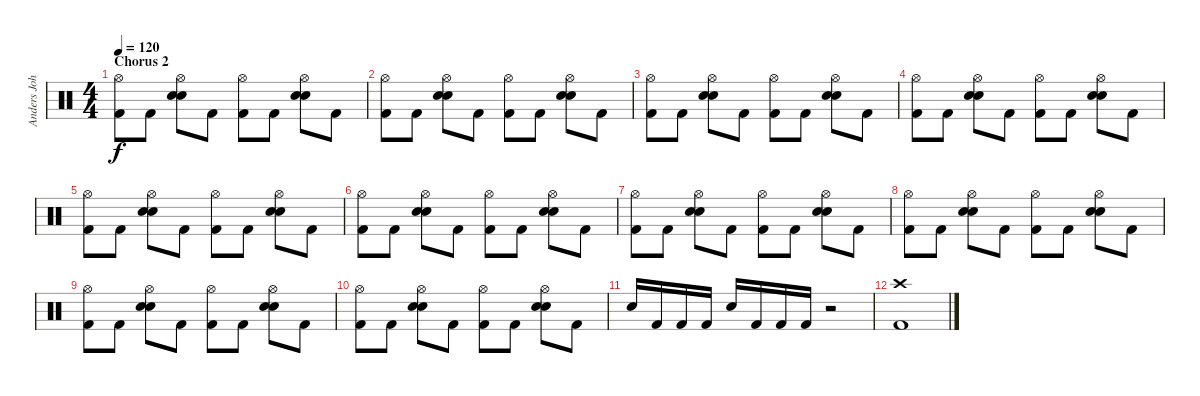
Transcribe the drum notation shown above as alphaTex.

\track ("Anders Johansson" "Anders Joh") {instrument percussion}
\staff {score}
\articulation defaults
\ts (4 4)
\section ("" "Chorus 2")
\tempo 120
\clef neutral
\ks c
("Hi-Hat (open)" "Kick (hit) 2").8{dy f} "Kick (hit) 2".8 ("Hi-Hat (open)" "Electric Snare (hit)" "Snare (hit) 2").8 "Kick (hit) 2".8 ("Hi-Hat (open)" "Kick (hit) 2").8 "Kick (hit) 2".8 ("Hi-Hat (open)" "Electric Snare (hit)" "Snare (hit) 2").8 "Kick (hit) 2".8 |
("Hi-Hat (open)" "Kick (hit) 2").8 "Kick (hit) 2".8 ("Hi-Hat (open)" "Electric Snare (hit)" "Snare (hit) 2").8 "Kick (hit) 2".8 ("Hi-Hat (open)" "Kick (hit) 2").8 "Kick (hit) 2".8 ("Hi-Hat (open)" "Electric Snare (hit)" "Snare (hit) 2").8 "Kick (hit) 2".8 |
("Hi-Hat (open)" "Kick (hit) 2").8 "Kick (hit) 2".8 ("Hi-Hat (open)" "Electric Snare (hit)" "Snare (hit) 2").8 "Kick (hit) 2".8 ("Hi-Hat (open)" "Kick (hit) 2").8 "Kick (hit) 2".8 ("Hi-Hat (open)" "Electric Snare (hit)" "Snare (hit) 2").8 "Kick (hit) 2".8 |
("Hi-Hat (open)" "Kick (hit) 2").8 "Kick (hit) 2".8 ("Hi-Hat (open)" "Electric Snare (hit)" "Snare (hit) 2").8 "Kick (hit) 2".8 ("Hi-Hat (open)" "Kick (hit) 2").8 "Kick (hit) 2".8 ("Hi-Hat (open)" "Electric Snare (hit)" "Snare (hit) 2").8 "Kick (hit) 2".8 |
("Hi-Hat (open)" "Kick (hit) 2").8 "Kick (hit) 2".8 ("Hi-Hat (open)" "Electric Snare (hit)" "Snare (hit) 2").8 "Kick (hit) 2".8 ("Hi-Hat (open)" "Kick (hit) 2").8 "Kick (hit) 2".8 ("Hi-Hat (open)" "Electric Snare (hit)" "Snare (hit) 2").8 "Kick (hit) 2".8 |
("Hi-Hat (open)" "Kick (hit) 2").8 "Kick (hit) 2".8 ("Hi-Hat (open)" "Electric Snare (hit)" "Snare (hit) 2").8 "Kick (hit) 2".8 ("Hi-Hat (open)" "Kick (hit) 2").8 "Kick (hit) 2".8 ("Hi-Hat (open)" "Electric Snare (hit)" "Snare (hit) 2").8 "Kick (hit) 2".8 |
("Hi-Hat (open)" "Kick (hit) 2").8 "Kick (hit) 2".8 ("Hi-Hat (open)" "Electric Snare (hit)" "Snare (hit) 2").8 "Kick (hit) 2".8 ("Hi-Hat (open)" "Kick (hit) 2").8 "Kick (hit) 2".8 ("Hi-Hat (open)" "Electric Snare (hit)" "Snare (hit) 2").8 "Kick (hit) 2".8 |
("Hi-Hat (open)" "Kick (hit) 2").8 "Kick (hit) 2".8 ("Hi-Hat (open)" "Electric Snare (hit)" "Snare (hit) 2").8 "Kick (hit) 2".8 ("Hi-Hat (open)" "Kick (hit) 2").8 "Kick (hit) 2".8 ("Hi-Hat (open)" "Electric Snare (hit)" "Snare (hit) 2").8 "Kick (hit) 2".8 |
("Hi-Hat (open)" "Kick (hit) 2").8 "Kick (hit) 2".8 ("Hi-Hat (open)" "Electric Snare (hit)" "Snare (hit) 2").8 "Kick (hit) 2".8 ("Hi-Hat (open)" "Kick (hit) 2").8 "Kick (hit) 2".8 ("Hi-Hat (open)" "Electric Snare (hit)" "Snare (hit) 2").8 "Kick (hit) 2".8 |
("Hi-Hat (open)" "Kick (hit) 2").8 "Kick (hit) 2".8 ("Hi-Hat (open)" "Electric Snare (hit)" "Snare (hit) 2").8 "Kick (hit) 2".8 ("Hi-Hat (open)" "Kick (hit) 2").8 "Kick (hit) 2".8 ("Hi-Hat (open)" "Electric Snare (hit)" "Snare (hit) 2").8 "Kick (hit) 2".8 |
"Electric Snare (hit)".16 "Kick (hit) 2".16 "Kick (hit) 2".16 "Kick (hit) 2".16 "Electric Snare (hit)".16 "Kick (hit) 2".16 "Kick (hit) 2".16 "Kick (hit) 2".16 r.2 |
("Crash high (hit)" "Kick (hit) 2").1
